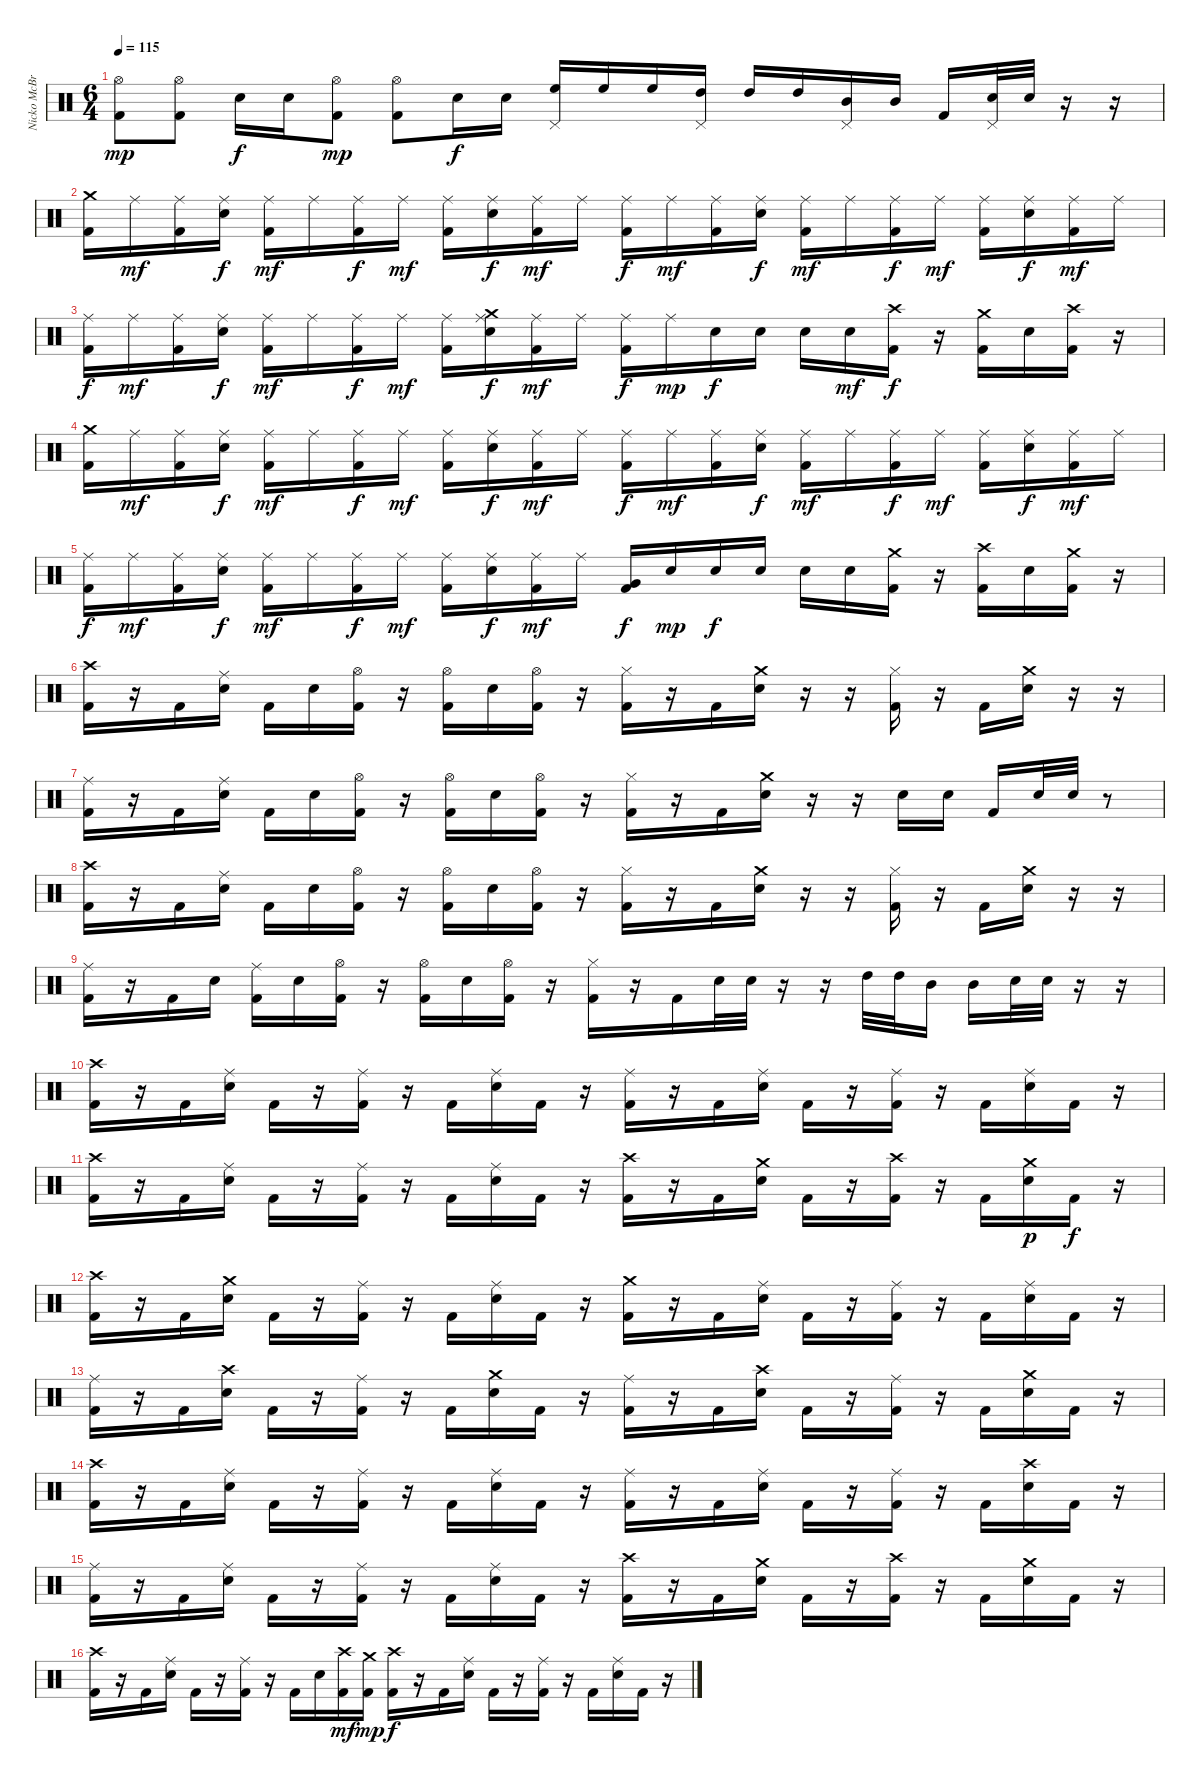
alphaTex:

\track ("Nicko McBrain" "Nicko McBr") {instrument percussion}
\staff {score}
\articulation defaults
\ts (6 4)
\tempo 115
\clef neutral
\ks c
("Kick (hit) 2" "Hi-Hat (open)").8{dy mp} ("Kick (hit) 2" "Hi-Hat (open)").8 "Electric Snare (hit)".16{dy f} "Electric Snare (hit)".16 ("Kick (hit) 2" "Hi-Hat (open)").8{dy mp} ("Kick (hit) 2" "Hi-Hat (open)").8 "Electric Snare (hit)".16{dy f} "Electric Snare (hit)".16 ("High Floor Tom (hit)" "Pedal Hi-Hat (hit)").16 "High Floor Tom (hit)".16 "High Floor Tom (hit)".16 ("High Tom (hit)" "Pedal Hi-Hat (hit)").16 "High Tom (hit)".16 "High Tom (hit)".16 ("Mid Tom (hit)" "Pedal Hi-Hat (hit)").16 "Mid Tom (hit)".16 "Kick (hit) 2".16 ("Electric Snare (hit)" "Pedal Hi-Hat (hit)").32 "Electric Snare (hit)".32 r.16 r.16 |
("Crash medium (hit)" "Kick (hit) 2").16 "Ride (middle)".16{dy mf} ("Ride (middle)" "Kick (hit) 2").16 ("Ride (middle)" "Electric Snare (hit)").16{dy f} ("Ride (middle)" "Kick (hit) 2").16{dy mf} "Ride (middle)".16 ("Ride (middle)" "Kick (hit) 2").16{dy f} "Ride (middle)".16{dy mf} ("Ride (middle)" "Kick (hit) 2").16 ("Ride (middle)" "Electric Snare (hit)").16{dy f} ("Ride (middle)" "Kick (hit) 2").16{dy mf} "Ride (middle)".16 ("Ride (middle)" "Kick (hit) 2").16{dy f} "Ride (middle)".16{dy mf} ("Ride (middle)" "Kick (hit) 2").16 ("Ride (middle)" "Electric Snare (hit)").16{dy f} ("Ride (middle)" "Kick (hit) 2").16{dy mf} "Ride (middle)".16 ("Ride (middle)" "Kick (hit) 2").16{dy f} "Ride (middle)".16{dy mf} ("Ride (middle)" "Kick (hit) 2").16 ("Ride (middle)" "Electric Snare (hit)").16{dy f} ("Ride (middle)" "Kick (hit) 2").16{dy mf} "Ride (middle)".16 |
("Ride (middle)" "Kick (hit) 2").16{dy f} "Ride (middle)".16{dy mf} ("Ride (middle)" "Kick (hit) 2").16 ("Ride (middle)" "Electric Snare (hit)").16{dy f} ("Ride (middle)" "Kick (hit) 2").16{dy mf} "Ride (middle)".16 ("Ride (middle)" "Kick (hit) 2").16{dy f} "Ride (middle)".16{dy mf} ("Ride (middle)" "Kick (hit) 2").16 ("Ride (middle)" "Electric Snare (hit)" "Crash medium (hit)").16{dy f} ("Ride (middle)" "Kick (hit) 2").16{dy mf} "Ride (middle)".16 ("Ride (middle)" "Kick (hit) 2").16{dy f} "Ride (middle)".16{dy mp} "Electric Snare (hit)".16{dy f} "Electric Snare (hit)".16 "Electric Snare (hit)".16 "Electric Snare (hit)".16{dy mf} ("Crash high (hit)" "Kick (hit) 2").16{dy f} r.16 ("Crash medium (hit)" "Kick (hit) 2").16 "Electric Snare (hit)".16 ("Kick (hit) 2" "Crash high (hit)").16 r.16 |
("Crash medium (hit)" "Kick (hit) 2").16 "Ride (middle)".16{dy mf} ("Ride (middle)" "Kick (hit) 2").16 ("Ride (middle)" "Electric Snare (hit)").16{dy f} ("Ride (middle)" "Kick (hit) 2").16{dy mf} "Ride (middle)".16 ("Ride (middle)" "Kick (hit) 2").16{dy f} "Ride (middle)".16{dy mf} ("Ride (middle)" "Kick (hit) 2").16 ("Ride (middle)" "Electric Snare (hit)").16{dy f} ("Ride (middle)" "Kick (hit) 2").16{dy mf} "Ride (middle)".16 ("Ride (middle)" "Kick (hit) 2").16{dy f} "Ride (middle)".16{dy mf} ("Ride (middle)" "Kick (hit) 2").16 ("Ride (middle)" "Electric Snare (hit)").16{dy f} ("Ride (middle)" "Kick (hit) 2").16{dy mf} "Ride (middle)".16 ("Ride (middle)" "Kick (hit) 2").16{dy f} "Ride (middle)".16{dy mf} ("Ride (middle)" "Kick (hit) 2").16 ("Ride (middle)" "Electric Snare (hit)").16{dy f} ("Ride (middle)" "Kick (hit) 2").16{dy mf} "Ride (middle)".16 |
("Ride (middle)" "Kick (hit) 2").16{dy f} "Ride (middle)".16{dy mf} ("Ride (middle)" "Kick (hit) 2").16 ("Ride (middle)" "Electric Snare (hit)").16{dy f} ("Ride (middle)" "Kick (hit) 2").16{dy mf} "Ride (middle)".16 ("Ride (middle)" "Kick (hit) 2").16{dy f} "Ride (middle)".16{dy mf} ("Ride (middle)" "Kick (hit) 2").16 ("Ride (middle)" "Electric Snare (hit)").16{dy f} ("Ride (middle)" "Kick (hit) 2").16{dy mf} "Ride (middle)".16 ("Very Low Tom (hit)" "Kick (hit) 2").16{dy f} "Electric Snare (hit)".16{dy mp} "Electric Snare (hit)".16{dy f} "Electric Snare (hit)".16 "Electric Snare (hit)".16 "Electric Snare (hit)".16 ("Crash medium (hit)" "Kick (hit) 2").16 r.16 ("Crash high (hit)" "Kick (hit) 2").16 "Electric Snare (hit)".16 ("Kick (hit) 2" "Crash medium (hit)").16 r.16 |
("Crash high (hit)" "Kick (hit) 2").16 r.16 "Kick (hit) 2".16 ("Electric Snare (hit)" "Ride (middle)").16 "Kick (hit) 2".16 "Electric Snare (hit)".16 ("Kick (hit) 2" "Hi-Hat (open)").16 r.16 ("Hi-Hat (open)" "Kick (hit) 2").16 "Electric Snare (hit)".16 ("Hi-Hat (open)" "Kick (hit) 2").16 r.16 ("Kick (hit) 2" "Hi-Hat (closed)").16 r.16 "Kick (hit) 2".16 ("Crash medium (hit)" "Electric Snare (hit)").16 r.16 r.16 ("Hi-Hat (closed)" "Kick (hit) 2").16 r.16 "Kick (hit) 2".16 ("Crash medium (hit)" "Electric Snare (hit)").16 r.16 r.16 |
("Ride (middle)" "Kick (hit) 2").16 r.16 "Kick (hit) 2".16 ("Electric Snare (hit)" "Ride (middle)").16 "Kick (hit) 2".16 "Electric Snare (hit)".16 ("Kick (hit) 2" "Hi-Hat (open)").16 r.16 ("Hi-Hat (open)" "Kick (hit) 2").16 "Electric Snare (hit)".16 ("Hi-Hat (open)" "Kick (hit) 2").16 r.16 ("Kick (hit) 2" "Hi-Hat (closed)").16 r.16 "Kick (hit) 2".16 ("Crash medium (hit)" "Electric Snare (hit)").16 r.16 r.16 "Electric Snare (hit)".16 "Electric Snare (hit)".16 "Kick (hit) 2".16 "Snare (hit) 2".32 "Snare (hit) 2".32 r.8 |
("Crash high (hit)" "Kick (hit) 2").16 r.16 "Kick (hit) 2".16 ("Electric Snare (hit)" "Ride (middle)").16 "Kick (hit) 2".16 "Electric Snare (hit)".16 ("Kick (hit) 2" "Hi-Hat (open)").16 r.16 ("Hi-Hat (open)" "Kick (hit) 2").16 "Electric Snare (hit)".16 ("Hi-Hat (open)" "Kick (hit) 2").16 r.16 ("Kick (hit) 2" "Hi-Hat (closed)").16 r.16 "Kick (hit) 2".16 ("Crash medium (hit)" "Electric Snare (hit)").16 r.16 r.16 ("Hi-Hat (closed)" "Kick (hit) 2").16 r.16 "Kick (hit) 2".16 ("Crash medium (hit)" "Electric Snare (hit)").16 r.16 r.16 |
("Ride (middle)" "Kick (hit) 2").16 r.16 "Kick (hit) 2".16 "Electric Snare (hit)".16 ("Kick (hit) 2" "Ride (middle)").16 "Electric Snare (hit)".16 ("Kick (hit) 2" "Hi-Hat (open)").16 r.16 ("Hi-Hat (open)" "Kick (hit) 2").16 "Electric Snare (hit)".16 ("Hi-Hat (open)" "Kick (hit) 2").16 r.16 ("Kick (hit) 2" "Hi-Hat (closed)").16 r.16 "Kick (hit) 2".16 "Electric Snare (hit)".32 "Electric Snare (hit)".32 r.16 r.16 "High Tom (hit)".32 "High Tom (hit)".32 "Mid Tom (hit)".16 "Mid Tom (hit)".16 "Electric Snare (hit)".32 "Electric Snare (hit)".32 r.16 r.16 |
("Crash high (hit)" "Kick (hit) 2").16 r.16 "Kick (hit) 2".16 ("Ride (middle)" "Electric Snare (hit)").16 "Kick (hit) 2".16 r.16 ("Ride (middle)" "Kick (hit) 2").16 r.16 "Kick (hit) 2".16 ("Ride (middle)" "Electric Snare (hit)").16 "Kick (hit) 2".16 r.16 ("Kick (hit) 2" "Ride (middle)").16 r.16 "Kick (hit) 2".16 ("Ride (middle)" "Electric Snare (hit)").16 "Kick (hit) 2".16 r.16 ("Ride (middle)" "Kick (hit) 2").16 r.16 "Kick (hit) 2".16 ("Electric Snare (hit)" "Ride (middle)").16 "Kick (hit) 2".16 r.16 |
("Crash high (hit)" "Kick (hit) 2").16 r.16 "Kick (hit) 2".16 ("Ride (middle)" "Electric Snare (hit)").16 "Kick (hit) 2".16 r.16 ("Ride (middle)" "Kick (hit) 2").16 r.16 "Kick (hit) 2".16 ("Ride (middle)" "Electric Snare (hit)").16 "Kick (hit) 2".16 r.16 ("Kick (hit) 2" "Crash high (hit)").16 r.16 "Kick (hit) 2".16 ("Crash medium (hit)" "Electric Snare (hit)").16 "Kick (hit) 2".16 r.16 ("Crash high (hit)" "Kick (hit) 2").16 r.16 "Kick (hit) 2".16 ("Electric Snare (hit)" "Crash medium (hit)").16{dy p} "Kick (hit) 2".16{dy f} r.16 |
("Crash high (hit)" "Kick (hit) 2").16 r.16 "Kick (hit) 2".16 ("Crash medium (hit)" "Electric Snare (hit)").16 "Kick (hit) 2".16 r.16 ("Ride (middle)" "Kick (hit) 2").16 r.16 "Kick (hit) 2".16 ("Ride (middle)" "Electric Snare (hit)").16 "Kick (hit) 2".16 r.16 ("Kick (hit) 2" "Crash medium (hit)").16 r.16 "Kick (hit) 2".16 ("Ride (middle)" "Electric Snare (hit)").16 "Kick (hit) 2".16 r.16 ("Ride (middle)" "Kick (hit) 2").16 r.16 "Kick (hit) 2".16 ("Electric Snare (hit)" "Ride (middle)").16 "Kick (hit) 2".16 r.16 |
("Ride (middle)" "Kick (hit) 2").16 r.16 "Kick (hit) 2".16 ("Crash high (hit)" "Electric Snare (hit)").16 "Kick (hit) 2".16 r.16 ("Ride (middle)" "Kick (hit) 2").16 r.16 "Kick (hit) 2".16 ("Crash medium (hit)" "Electric Snare (hit)").16 "Kick (hit) 2".16 r.16 ("Kick (hit) 2" "Ride (middle)").16 r.16 "Kick (hit) 2".16 ("Crash high (hit)" "Electric Snare (hit)").16 "Kick (hit) 2".16 r.16 ("Ride (middle)" "Kick (hit) 2").16 r.16 "Kick (hit) 2".16 ("Electric Snare (hit)" "Crash medium (hit)").16 "Kick (hit) 2".16 r.16 |
("Crash high (hit)" "Kick (hit) 2").16 r.16 "Kick (hit) 2".16 ("Ride (middle)" "Electric Snare (hit)").16 "Kick (hit) 2".16 r.16 ("Ride (middle)" "Kick (hit) 2").16 r.16 "Kick (hit) 2".16 ("Ride (middle)" "Electric Snare (hit)").16 "Kick (hit) 2".16 r.16 ("Kick (hit) 2" "Ride (middle)").16 r.16 "Kick (hit) 2".16 ("Ride (middle)" "Electric Snare (hit)").16 "Kick (hit) 2".16 r.16 ("Ride (middle)" "Kick (hit) 2").16 r.16 "Kick (hit) 2".16 ("Electric Snare (hit)" "Crash high (hit)").16 "Kick (hit) 2".16 r.16 |
("Ride (middle)" "Kick (hit) 2").16 r.16 "Kick (hit) 2".16 ("Ride (middle)" "Electric Snare (hit)").16 "Kick (hit) 2".16 r.16 ("Ride (middle)" "Kick (hit) 2").16 r.16 "Kick (hit) 2".16 ("Ride (middle)" "Electric Snare (hit)").16 "Kick (hit) 2".16 r.16 ("Kick (hit) 2" "Crash high (hit)").16 r.16 "Kick (hit) 2".16 ("Crash medium (hit)" "Electric Snare (hit)").16 "Kick (hit) 2".16 r.16 ("Crash high (hit)" "Kick (hit) 2").16 r.16 "Kick (hit) 2".16 ("Electric Snare (hit)" "Crash medium (hit)").16 "Kick (hit) 2".16 r.16 |
("Crash high (hit)" "Kick (hit) 2").16 r.16 "Kick (hit) 2".16 ("Ride (middle)" "Electric Snare (hit)").16 "Kick (hit) 2".16 r.16 ("Ride (middle)" "Kick (hit) 2").16 r.16 "Kick (hit) 2".16 "Electric Snare (hit)".16 ("Crash high (hit)" "Kick (hit) 2").16{dy mf} ("Crash medium (hit)" "Kick (hit) 2").16{dy mp} ("Crash high (hit)" "Kick (hit) 2").16{dy f} r.16 "Kick (hit) 2".16 ("Ride (middle)" "Electric Snare (hit)").16 "Kick (hit) 2".16 r.16 ("Ride (middle)" "Kick (hit) 2").16 r.16 "Kick (hit) 2".16 ("Electric Snare (hit)" "Ride (middle)").16 "Kick (hit) 2".16 r.16
